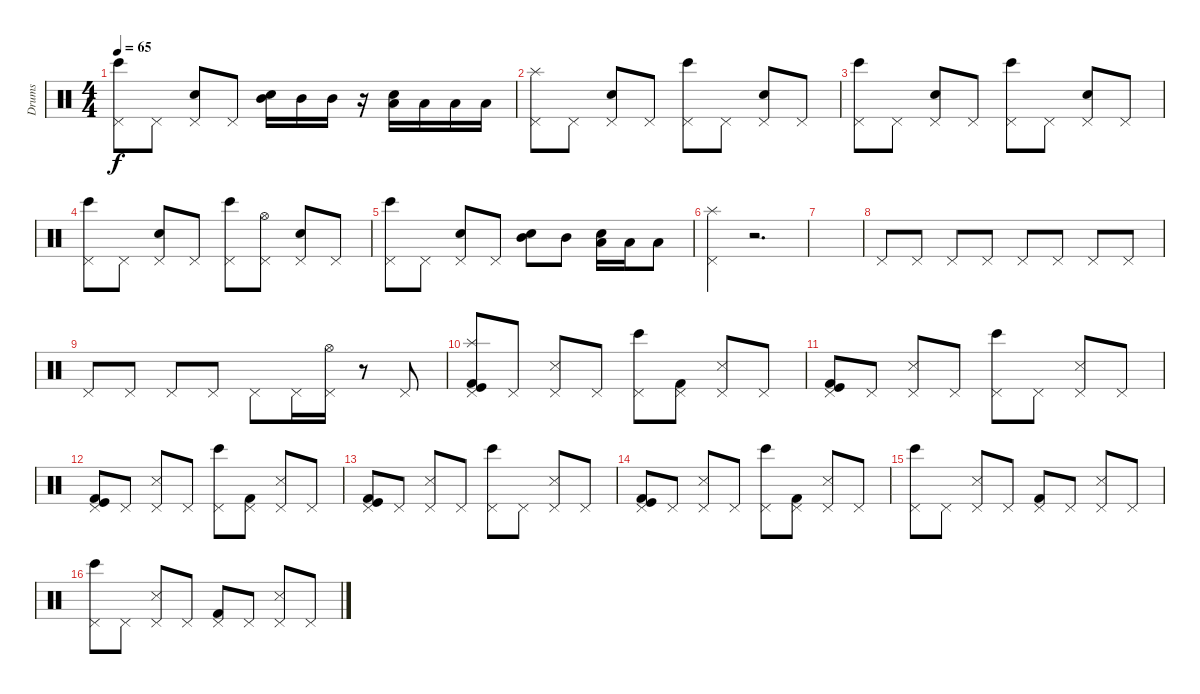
\track ("Drums" "Drums") {instrument percussion}
\staff {score}
\articulation defaults
\ts (4 4)
\tempo 65
\clef neutral
\ks c
("Pedal Hi-Hat (hit)" "Bongo High (hit)").8{dy f} "Pedal Hi-Hat (hit)".8 ("Pedal Hi-Hat (hit)" "Snare (hit) 2").8 "Pedal Hi-Hat (hit)".8 ("Snare (hit) 2" "Mid Tom (hit)").16 "Mid Tom (hit)".16 "Mid Tom (hit)".16 r.16 ("Snare (hit) 2" "Low Tom (hit)").16 "Low Tom (hit)".16 "Low Tom (hit)".16 "Low Tom (hit)".16 |
("Pedal Hi-Hat (hit)" "Splash (hit)").8 "Pedal Hi-Hat (hit)".8 ("Pedal Hi-Hat (hit)" "Snare (hit) 2").8 "Pedal Hi-Hat (hit)".8 ("Pedal Hi-Hat (hit)" "Bongo High (hit)").8 "Pedal Hi-Hat (hit)".8 ("Pedal Hi-Hat (hit)" "Snare (hit) 2").8 "Pedal Hi-Hat (hit)".8 |
("Pedal Hi-Hat (hit)" "Bongo High (hit)").8 "Pedal Hi-Hat (hit)".8 ("Pedal Hi-Hat (hit)" "Snare (hit) 2").8 "Pedal Hi-Hat (hit)".8 ("Pedal Hi-Hat (hit)" "Bongo High (hit)").8 "Pedal Hi-Hat (hit)".8 ("Pedal Hi-Hat (hit)" "Snare (hit) 2").8 "Pedal Hi-Hat (hit)".8 |
("Pedal Hi-Hat (hit)" "Bongo High (hit)").8 "Pedal Hi-Hat (hit)".8 ("Pedal Hi-Hat (hit)" "Snare (hit) 2").8 "Pedal Hi-Hat (hit)".8 ("Pedal Hi-Hat (hit)" "Bongo High (hit)").8 ("Pedal Hi-Hat (hit)" "Hi-Hat (open)").8 ("Pedal Hi-Hat (hit)" "Snare (hit) 2").8 "Pedal Hi-Hat (hit)".8 |
("Pedal Hi-Hat (hit)" "Bongo High (hit)").8 "Pedal Hi-Hat (hit)".8 ("Pedal Hi-Hat (hit)" "Snare (hit) 2").8 "Pedal Hi-Hat (hit)".8 ("Snare (hit) 2" "Mid Tom (hit)").8 "Mid Tom (hit)".8 ("Snare (hit) 2" "Low Tom (hit)").16 "Low Tom (hit)".16 "Low Tom (hit)".8 |
("Pedal Hi-Hat (hit)" "Splash (hit)").4 r.2{d} |
|
"Pedal Hi-Hat (hit)".8 "Pedal Hi-Hat (hit)".8 "Pedal Hi-Hat (hit)".8 "Pedal Hi-Hat (hit)".8 "Pedal Hi-Hat (hit)".8 "Pedal Hi-Hat (hit)".8 "Pedal Hi-Hat (hit)".8 "Pedal Hi-Hat (hit)".8 |
"Pedal Hi-Hat (hit)".8 "Pedal Hi-Hat (hit)".8 "Pedal Hi-Hat (hit)".8 "Pedal Hi-Hat (hit)".8 "Pedal Hi-Hat (hit)".8 "Pedal Hi-Hat (hit)".16 ("Pedal Hi-Hat (hit)" "Hi-Hat (open)").16 r.8 "Pedal Hi-Hat (hit)".8 |
("Pedal Hi-Hat (hit)" "Splash (hit)" "Kick (hit)" "Kick (hit) 2").8 "Pedal Hi-Hat (hit)".8 ("Pedal Hi-Hat (hit)" "Snare (side stick) 3").8 "Pedal Hi-Hat (hit)".8 ("Pedal Hi-Hat (hit)" "Bongo High (hit)").8 ("Pedal Hi-Hat (hit)" "Kick (hit) 2").8 ("Pedal Hi-Hat (hit)" "Snare (side stick) 3").8 "Pedal Hi-Hat (hit)".8 |
("Pedal Hi-Hat (hit)" "Kick (hit)" "Kick (hit) 2").8 "Pedal Hi-Hat (hit)".8 ("Pedal Hi-Hat (hit)" "Snare (side stick) 3").8 "Pedal Hi-Hat (hit)".8 ("Pedal Hi-Hat (hit)" "Bongo High (hit)").8 "Pedal Hi-Hat (hit)".8 ("Pedal Hi-Hat (hit)" "Snare (side stick) 3").8 "Pedal Hi-Hat (hit)".8 |
("Pedal Hi-Hat (hit)" "Kick (hit)" "Kick (hit) 2").8 "Pedal Hi-Hat (hit)".8 ("Pedal Hi-Hat (hit)" "Snare (side stick) 3").8 "Pedal Hi-Hat (hit)".8 ("Pedal Hi-Hat (hit)" "Bongo High (hit)").8 ("Pedal Hi-Hat (hit)" "Kick (hit) 2").8 ("Pedal Hi-Hat (hit)" "Snare (side stick) 3").8 "Pedal Hi-Hat (hit)".8 |
("Pedal Hi-Hat (hit)" "Kick (hit)" "Kick (hit) 2").8 "Pedal Hi-Hat (hit)".8 ("Pedal Hi-Hat (hit)" "Snare (side stick) 3").8 "Pedal Hi-Hat (hit)".8 ("Pedal Hi-Hat (hit)" "Bongo High (hit)").8 "Pedal Hi-Hat (hit)".8 ("Pedal Hi-Hat (hit)" "Snare (side stick) 3").8 "Pedal Hi-Hat (hit)".8 |
("Pedal Hi-Hat (hit)" "Kick (hit)" "Kick (hit) 2").8 "Pedal Hi-Hat (hit)".8 ("Pedal Hi-Hat (hit)" "Snare (side stick) 3").8 "Pedal Hi-Hat (hit)".8 ("Pedal Hi-Hat (hit)" "Bongo High (hit)").8 ("Pedal Hi-Hat (hit)" "Kick (hit) 2").8 ("Pedal Hi-Hat (hit)" "Snare (side stick) 3").8 "Pedal Hi-Hat (hit)".8 |
("Pedal Hi-Hat (hit)" "Bongo High (hit)").8 "Pedal Hi-Hat (hit)".8 ("Pedal Hi-Hat (hit)" "Snare (side stick) 3").8 "Pedal Hi-Hat (hit)".8 ("Pedal Hi-Hat (hit)" "Kick (hit) 2").8 "Pedal Hi-Hat (hit)".8 ("Pedal Hi-Hat (hit)" "Snare (side stick) 3").8 "Pedal Hi-Hat (hit)".8 |
("Pedal Hi-Hat (hit)" "Bongo High (hit)").8 "Pedal Hi-Hat (hit)".8 ("Pedal Hi-Hat (hit)" "Snare (side stick) 3").8 "Pedal Hi-Hat (hit)".8 ("Pedal Hi-Hat (hit)" "Kick (hit) 2").8 "Pedal Hi-Hat (hit)".8 ("Pedal Hi-Hat (hit)" "Snare (side stick) 3").8 "Pedal Hi-Hat (hit)".8
